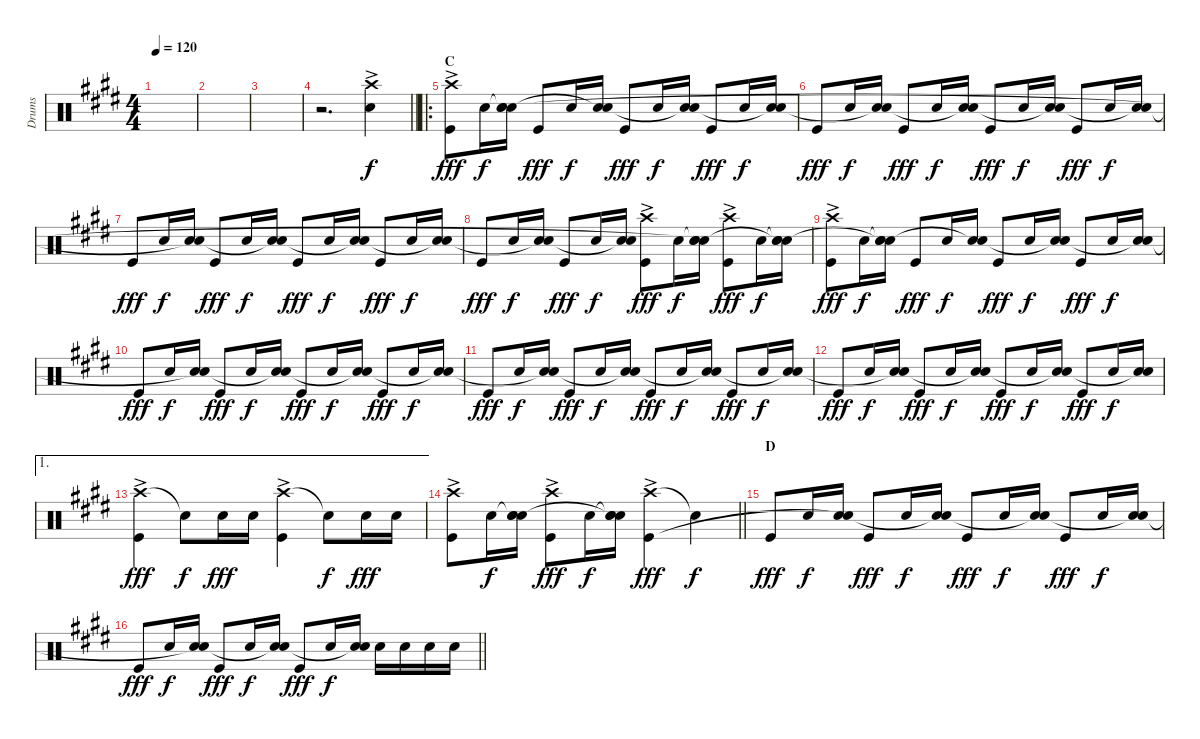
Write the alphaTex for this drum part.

\track ("Drums" "Drums") {instrument percussion}
\staff {score}
\articulation defaults
\ts (4 4)
\tempo 120
\clef neutral
\ks e
|
|
|
\barLineRight lightlight
r.2{d} ("Crash high (hit)"{ac} "Snare (hit) 2").4 |
\ro
\section ("" "C")
("Crash high (hit)"{ac} "Kick (hit)").8{dy fff} "Snare (hit) 2".16{dy f} ("Snare (hit)"{t} "Snare (hit) 2" "Snare (hit)").16 "Kick (hit)".8{dy fff} "Snare (hit) 2".16{dy f} ("Snare (hit) 2" "Snare (hit)"{t}).16 "Kick (hit)".8{dy fff} "Snare (hit) 2".16{dy f} ("Snare (hit) 2" "Snare (hit)"{t}).16 "Kick (hit)".8{dy fff} "Snare (hit) 2".16{dy f} ("Snare (hit) 2" "Snare (hit)"{t}).16 |
"Kick (hit)".8{dy fff} "Snare (hit) 2".16{dy f} ("Snare (hit) 2" "Snare (hit)"{t}).16 "Kick (hit)".8{dy fff} "Snare (hit) 2".16{dy f} ("Snare (hit) 2" "Snare (hit)"{t}).16 "Kick (hit)".8{dy fff} "Snare (hit) 2".16{dy f} ("Snare (hit) 2" "Snare (hit)"{t}).16 "Kick (hit)".8{dy fff} "Snare (hit) 2".16{dy f} ("Snare (hit) 2" "Snare (hit)"{t}).16 |
"Kick (hit)".8{dy fff} "Snare (hit) 2".16{dy f} ("Snare (hit) 2" "Snare (hit)"{t}).16 "Kick (hit)".8{dy fff} "Snare (hit) 2".16{dy f} ("Snare (hit) 2" "Snare (hit)"{t}).16 "Kick (hit)".8{dy fff} "Snare (hit) 2".16{dy f} ("Snare (hit) 2" "Snare (hit)"{t}).16 "Kick (hit)".8{dy fff} "Snare (hit) 2".16{dy f} ("Snare (hit) 2" "Snare (hit)"{t}).16 |
"Kick (hit)".8{dy fff} "Snare (hit) 2".16{dy f} ("Snare (hit) 2" "Snare (hit)"{t}).16 "Kick (hit)".8{dy fff} "Snare (hit) 2".16{dy f} ("Snare (hit) 2" "Snare (hit)"{t}).16 ("Crash high (hit)"{ac} "Kick (hit)").8{dy fff} "Snare (hit) 2".16{dy f} ("Snare (hit)"{t} "Snare (hit) 2" "Snare (hit)"{t}).16 ("Crash high (hit)"{ac} "Kick (hit)").8{dy fff} "Snare (hit) 2".16{dy f} ("Snare (hit)"{t} "Snare (hit) 2" "Snare (hit)"{t}).16 |
("Crash high (hit)"{ac} "Kick (hit)").8{dy fff} "Snare (hit) 2".16{dy f} ("Snare (hit)"{t} "Snare (hit) 2" "Snare (hit)"{t}).16 "Kick (hit)".8{dy fff} "Snare (hit) 2".16{dy f} ("Snare (hit) 2" "Snare (hit)"{t}).16 "Kick (hit)".8{dy fff} "Snare (hit) 2".16{dy f} ("Snare (hit) 2" "Snare (hit)"{t}).16 "Kick (hit)".8{dy fff} "Snare (hit) 2".16{dy f} ("Snare (hit) 2" "Snare (hit)"{t}).16 |
"Kick (hit)".8{dy fff} "Snare (hit) 2".16{dy f} ("Snare (hit) 2" "Snare (hit)"{t}).16 "Kick (hit)".8{dy fff} "Snare (hit) 2".16{dy f} ("Snare (hit) 2" "Snare (hit)"{t}).16 "Kick (hit)".8{dy fff} "Snare (hit) 2".16{dy f} ("Snare (hit) 2" "Snare (hit)"{t}).16 "Kick (hit)".8{dy fff} "Snare (hit) 2".16{dy f} ("Snare (hit) 2" "Snare (hit)"{t}).16 |
"Kick (hit)".8{dy fff} "Snare (hit) 2".16{dy f} ("Snare (hit) 2" "Snare (hit)"{t}).16 "Kick (hit)".8{dy fff} "Snare (hit) 2".16{dy f} ("Snare (hit) 2" "Snare (hit)"{t}).16 "Kick (hit)".8{dy fff} "Snare (hit) 2".16{dy f} ("Snare (hit) 2" "Snare (hit)"{t}).16 "Kick (hit)".8{dy fff} "Snare (hit) 2".16{dy f} ("Snare (hit) 2" "Snare (hit)"{t}).16 |
"Kick (hit)".8{dy fff} "Snare (hit) 2".16{dy f} ("Snare (hit) 2" "Snare (hit)"{t}).16 "Kick (hit)".8{dy fff} "Snare (hit) 2".16{dy f} ("Snare (hit) 2" "Snare (hit)"{t}).16 "Kick (hit)".8{dy fff} "Snare (hit) 2".16{dy f} ("Snare (hit) 2" "Snare (hit)"{t}).16 "Kick (hit)".8{dy fff} "Snare (hit) 2".16{dy f} ("Snare (hit) 2" "Snare (hit)"{t}).16 |
\ae 1
("Crash high (hit)"{ac} "Kick (hit)").4{dy fff} "Snare (hit)"{t}.8{dy f} "Snare (hit) 2".16{dy fff} "Snare (hit) 2".16 ("Crash high (hit)"{ac} "Kick (hit)").4 "Snare (hit)"{t}.8{dy f} "Snare (hit) 2".16{dy fff} "Snare (hit) 2".16 |
\barLineRight lightlight
("Crash high (hit)"{ac} "Kick (hit)").8 "Snare (hit) 2".16{dy f} ("Snare (hit)"{t} "Snare (hit) 2" "Snare (hit)").16 ("Crash high (hit)"{ac} "Kick (hit)").8{dy fff} "Snare (hit) 2".16{dy f} ("Snare (hit)"{t} "Snare (hit) 2" "Snare (hit)"{t}).16 ("Crash high (hit)"{ac} "Kick (hit)").4{dy fff} "Snare (hit)"{t}.4{dy f} |
\section ("" "D")
"Kick (hit)".8{dy fff} "Snare (hit) 2".16{dy f} ("Snare (hit) 2" "Snare (hit)"{t}).16 "Kick (hit)".8{dy fff} "Snare (hit) 2".16{dy f} ("Snare (hit) 2" "Snare (hit)"{t}).16 "Kick (hit)".8{dy fff} "Snare (hit) 2".16{dy f} ("Snare (hit) 2" "Snare (hit)"{t}).16 "Kick (hit)".8{dy fff} "Snare (hit) 2".16{dy f} ("Snare (hit) 2" "Snare (hit)"{t}).16 |
\barLineRight lightlight "Kick (hit)".8{dy fff} "Snare (hit) 2".16{dy f}
("Snare (hit) 2" "Snare (hit)"{t}).16 "Kick (hit)".8{dy fff} "Snare (hit) 2".16{dy f} ("Snare (hit) 2" "Snare (hit)"{t}).16 "Kick (hit)".8{dy fff} "Snare (hit) 2".16{dy f} ("Snare (hit) 2" "Snare (hit)"{t}).16 "Snare (hit) 2".16 "Snare (hit) 2".16 "Snare (hit) 2".16 "Snare (hit) 2".16
